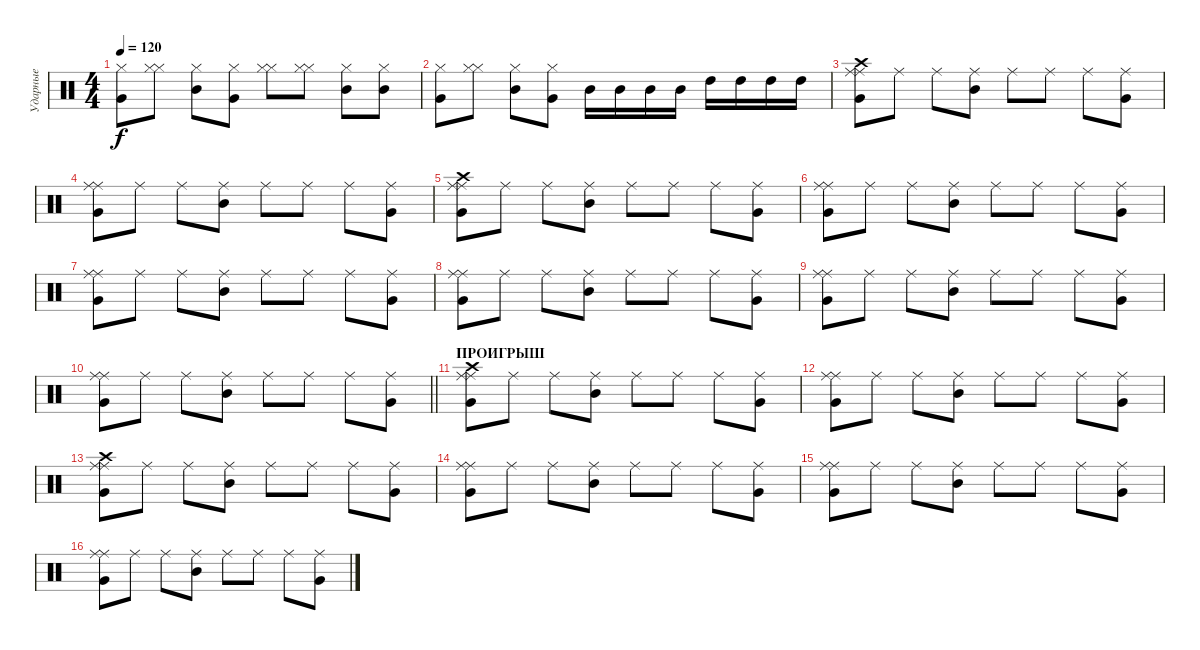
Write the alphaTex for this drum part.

\track ("Ударные" "Ударные") {instrument percussion}
\staff {score}
\articulation defaults
\ts (4 4)
\tempo 120
\clef neutral
\ks c
("Hi-Hat (closed)" "Very Low Tom (hit)").8{dy f} ("Hi-Hat (closed)" "Hi-Hat (closed)").8 ("Hi-Hat (closed)" "Mid Tom (hit)").8 ("Hi-Hat (closed)" "Very Low Tom (hit)").8 ("Hi-Hat (closed)" "Hi-Hat (closed)").8 ("Hi-Hat (closed)" "Hi-Hat (closed)").8 ("Hi-Hat (closed)" "Mid Tom (hit)").8 ("Hi-Hat (closed)" "Mid Tom (hit)").8 |
("Hi-Hat (closed)" "Very Low Tom (hit)").8 ("Hi-Hat (closed)" "Hi-Hat (closed)").8 ("Hi-Hat (closed)" "Mid Tom (hit)").8 ("Hi-Hat (closed)" "Very Low Tom (hit)").8 "Mid Tom (hit)".16 "Mid Tom (hit)".16 "Mid Tom (hit)".16 "Mid Tom (hit)".16 "High Tom (hit)".16 "High Tom (hit)".16 "High Tom (hit)".16 "High Tom (hit)".16 |
("Crash high (hit)" "Ride (middle)" "Ride (middle)" "Very Low Tom (hit)").8 "Ride (middle)".8 "Ride (middle)".8 ("Ride (middle)" "Mid Tom (hit)").8 "Ride (middle)".8 "Ride (middle)".8 "Ride (middle)".8 ("Ride (middle)" "Very Low Tom (hit)").8 |
("Ride (middle)" "Ride (middle)" "Very Low Tom (hit)").8 "Ride (middle)".8 "Ride (middle)".8 ("Ride (middle)" "Mid Tom (hit)").8 "Ride (middle)".8 "Ride (middle)".8 "Ride (middle)".8 ("Ride (middle)" "Very Low Tom (hit)").8 |
("Crash high (hit)" "Ride (middle)" "Ride (middle)" "Very Low Tom (hit)").8 "Ride (middle)".8 "Ride (middle)".8 ("Ride (middle)" "Mid Tom (hit)").8 "Ride (middle)".8 "Ride (middle)".8 "Ride (middle)".8 ("Ride (middle)" "Very Low Tom (hit)").8 |
("Ride (middle)" "Ride (middle)" "Very Low Tom (hit)").8 "Ride (middle)".8 "Ride (middle)".8 ("Ride (middle)" "Mid Tom (hit)").8 "Ride (middle)".8 "Ride (middle)".8 "Ride (middle)".8 ("Ride (middle)" "Very Low Tom (hit)").8 |
("Ride (middle)" "Ride (middle)" "Very Low Tom (hit)").8 "Ride (middle)".8 "Ride (middle)".8 ("Ride (middle)" "Mid Tom (hit)").8 "Ride (middle)".8 "Ride (middle)".8 "Ride (middle)".8 ("Ride (middle)" "Very Low Tom (hit)").8 |
("Ride (middle)" "Ride (middle)" "Very Low Tom (hit)").8 "Ride (middle)".8 "Ride (middle)".8 ("Ride (middle)" "Mid Tom (hit)").8 "Ride (middle)".8 "Ride (middle)".8 "Ride (middle)".8 ("Ride (middle)" "Very Low Tom (hit)").8 |
("Ride (middle)" "Ride (middle)" "Very Low Tom (hit)").8 "Ride (middle)".8 "Ride (middle)".8 ("Ride (middle)" "Mid Tom (hit)").8 "Ride (middle)".8 "Ride (middle)".8 "Ride (middle)".8 ("Ride (middle)" "Very Low Tom (hit)").8 |
\barLineRight lightlight
("Ride (middle)" "Ride (middle)" "Very Low Tom (hit)").8 "Ride (middle)".8 "Ride (middle)".8 ("Ride (middle)" "Mid Tom (hit)").8 "Ride (middle)".8 "Ride (middle)".8 "Ride (middle)".8 ("Ride (middle)" "Very Low Tom (hit)").8 |
\section ("" "ПРОИГРЫШ")
("Crash high (hit)" "Ride (middle)" "Ride (middle)" "Very Low Tom (hit)").8 "Ride (middle)".8 "Ride (middle)".8 ("Ride (middle)" "Mid Tom (hit)").8 "Ride (middle)".8 "Ride (middle)".8 "Ride (middle)".8 ("Ride (middle)" "Very Low Tom (hit)").8 |
("Ride (middle)" "Ride (middle)" "Very Low Tom (hit)").8 "Ride (middle)".8 "Ride (middle)".8 ("Ride (middle)" "Mid Tom (hit)").8 "Ride (middle)".8 "Ride (middle)".8 "Ride (middle)".8 ("Ride (middle)" "Very Low Tom (hit)").8 |
("Crash high (hit)" "Ride (middle)" "Ride (middle)" "Very Low Tom (hit)").8 "Ride (middle)".8 "Ride (middle)".8 ("Ride (middle)" "Mid Tom (hit)").8 "Ride (middle)".8 "Ride (middle)".8 "Ride (middle)".8 ("Ride (middle)" "Very Low Tom (hit)").8 |
("Ride (middle)" "Ride (middle)" "Very Low Tom (hit)").8 "Ride (middle)".8 "Ride (middle)".8 ("Ride (middle)" "Mid Tom (hit)").8 "Ride (middle)".8 "Ride (middle)".8 "Ride (middle)".8 ("Ride (middle)" "Very Low Tom (hit)").8 |
("Ride (middle)" "Ride (middle)" "Very Low Tom (hit)").8 "Ride (middle)".8 "Ride (middle)".8 ("Ride (middle)" "Mid Tom (hit)").8 "Ride (middle)".8 "Ride (middle)".8 "Ride (middle)".8 ("Ride (middle)" "Very Low Tom (hit)").8 |
("Ride (middle)" "Ride (middle)" "Very Low Tom (hit)").8 "Ride (middle)".8 "Ride (middle)".8 ("Ride (middle)" "Mid Tom (hit)").8 "Ride (middle)".8 "Ride (middle)".8 "Ride (middle)".8 ("Ride (middle)" "Very Low Tom (hit)").8
